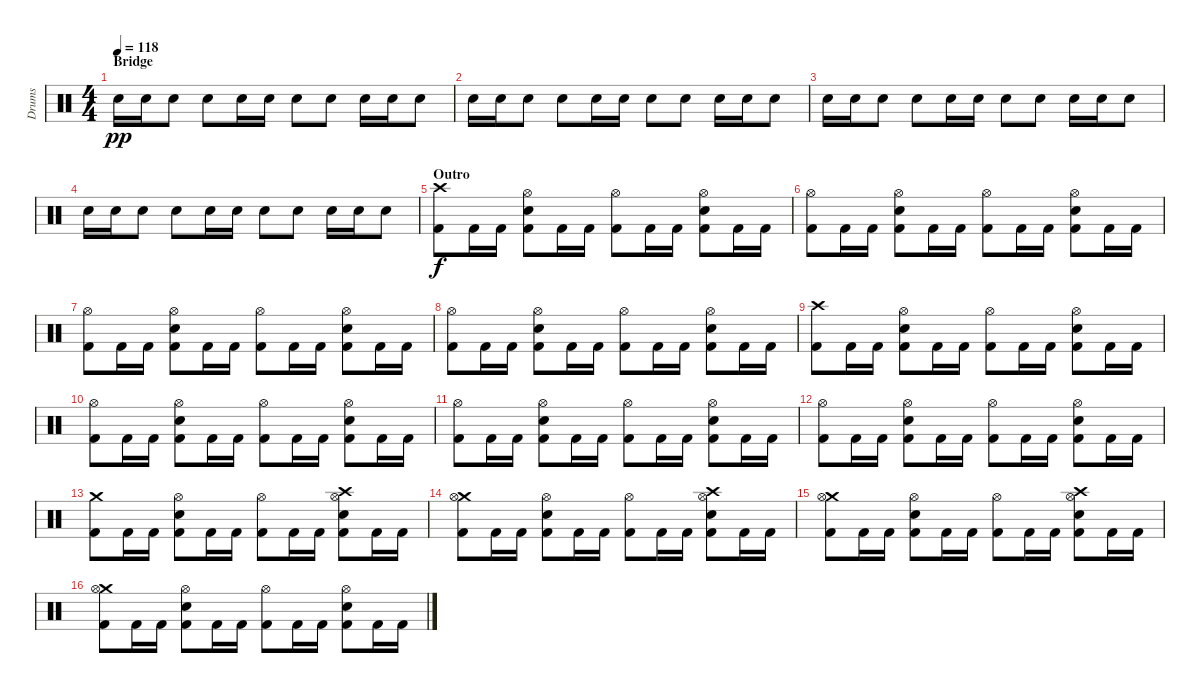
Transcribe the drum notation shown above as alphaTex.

\track ("Drums" "Drums") {instrument percussion}
\staff {score}
\articulation defaults
\ts (4 4)
\section ("" "Bridge")
\tempo 118
\clef neutral
\ks c "Snare (hit) 2".16{dy pp} "Snare (hit) 2".16 "Snare (hit) 2".8 "Snare (hit) 2".8 "Snare (hit) 2".16 "Snare (hit) 2".16 "Snare (hit) 2".8 "Snare (hit) 2".8 "Snare (hit) 2".16 "Snare (hit) 2".16 "Snare (hit) 2".8
|
"Snare (hit) 2".16 "Snare (hit) 2".16 "Snare (hit) 2".8 "Snare (hit) 2".8 "Snare (hit) 2".16 "Snare (hit) 2".16 "Snare (hit) 2".8 "Snare (hit) 2".8 "Snare (hit) 2".16 "Snare (hit) 2".16 "Snare (hit) 2".8 |
"Snare (hit) 2".16 "Snare (hit) 2".16 "Snare (hit) 2".8 "Snare (hit) 2".8 "Snare (hit) 2".16 "Snare (hit) 2".16 "Snare (hit) 2".8 "Snare (hit) 2".8 "Snare (hit) 2".16 "Snare (hit) 2".16 "Snare (hit) 2".8 |
"Snare (hit) 2".16 "Snare (hit) 2".16 "Snare (hit) 2".8 "Snare (hit) 2".8 "Snare (hit) 2".16 "Snare (hit) 2".16 "Snare (hit) 2".8 "Snare (hit) 2".8 "Snare (hit) 2".16 "Snare (hit) 2".16 "Snare (hit) 2".8 |
\section ("" "Outro")
("Crash high (hit)" "Kick (hit) 2").8{dy f} "Kick (hit) 2".16 "Kick (hit) 2".16 ("Hi-Hat (open)" "Snare (hit) 2" "Kick (hit) 2").8 "Kick (hit) 2".16 "Kick (hit) 2".16 ("Hi-Hat (open)" "Kick (hit) 2").8 "Kick (hit) 2".16 "Kick (hit) 2".16 ("Hi-Hat (open)" "Snare (hit) 2" "Kick (hit) 2").8 "Kick (hit) 2".16 "Kick (hit) 2".16 |
("Hi-Hat (open)" "Kick (hit) 2").8 "Kick (hit) 2".16 "Kick (hit) 2".16 ("Hi-Hat (open)" "Snare (hit) 2" "Kick (hit) 2").8 "Kick (hit) 2".16 "Kick (hit) 2".16 ("Hi-Hat (open)" "Kick (hit) 2").8 "Kick (hit) 2".16 "Kick (hit) 2".16 ("Hi-Hat (open)" "Snare (hit) 2" "Kick (hit) 2").8 "Kick (hit) 2".16 "Kick (hit) 2".16 |
("Hi-Hat (open)" "Kick (hit) 2").8 "Kick (hit) 2".16 "Kick (hit) 2".16 ("Hi-Hat (open)" "Snare (hit) 2" "Kick (hit) 2").8 "Kick (hit) 2".16 "Kick (hit) 2".16 ("Hi-Hat (open)" "Kick (hit) 2").8 "Kick (hit) 2".16 "Kick (hit) 2".16 ("Hi-Hat (open)" "Snare (hit) 2" "Kick (hit) 2").8 "Kick (hit) 2".16 "Kick (hit) 2".16 |
("Hi-Hat (open)" "Kick (hit) 2").8 "Kick (hit) 2".16 "Kick (hit) 2".16 ("Hi-Hat (open)" "Snare (hit) 2" "Kick (hit) 2").8 "Kick (hit) 2".16 "Kick (hit) 2".16 ("Hi-Hat (open)" "Kick (hit) 2").8 "Kick (hit) 2".16 "Kick (hit) 2".16 ("Hi-Hat (open)" "Snare (hit) 2" "Kick (hit) 2").8 "Kick (hit) 2".16 "Kick (hit) 2".16 |
("Crash high (hit)" "Kick (hit) 2").8 "Kick (hit) 2".16 "Kick (hit) 2".16 ("Hi-Hat (open)" "Snare (hit) 2" "Kick (hit) 2").8 "Kick (hit) 2".16 "Kick (hit) 2".16 ("Hi-Hat (open)" "Kick (hit) 2").8 "Kick (hit) 2".16 "Kick (hit) 2".16 ("Hi-Hat (open)" "Snare (hit) 2" "Kick (hit) 2").8 "Kick (hit) 2".16 "Kick (hit) 2".16 |
("Hi-Hat (open)" "Kick (hit) 2").8 "Kick (hit) 2".16 "Kick (hit) 2".16 ("Hi-Hat (open)" "Snare (hit) 2" "Kick (hit) 2").8 "Kick (hit) 2".16 "Kick (hit) 2".16 ("Hi-Hat (open)" "Kick (hit) 2").8 "Kick (hit) 2".16 "Kick (hit) 2".16 ("Hi-Hat (open)" "Snare (hit) 2" "Kick (hit) 2").8 "Kick (hit) 2".16 "Kick (hit) 2".16 |
("Hi-Hat (open)" "Kick (hit) 2").8 "Kick (hit) 2".16 "Kick (hit) 2".16 ("Hi-Hat (open)" "Snare (hit) 2" "Kick (hit) 2").8 "Kick (hit) 2".16 "Kick (hit) 2".16 ("Hi-Hat (open)" "Kick (hit) 2").8 "Kick (hit) 2".16 "Kick (hit) 2".16 ("Hi-Hat (open)" "Snare (hit) 2" "Kick (hit) 2").8 "Kick (hit) 2".16 "Kick (hit) 2".16 |
("Hi-Hat (open)" "Kick (hit) 2").8 "Kick (hit) 2".16 "Kick (hit) 2".16 ("Hi-Hat (open)" "Snare (hit) 2" "Kick (hit) 2").8 "Kick (hit) 2".16 "Kick (hit) 2".16 ("Hi-Hat (open)" "Kick (hit) 2").8 "Kick (hit) 2".16 "Kick (hit) 2".16 ("Hi-Hat (open)" "Snare (hit) 2" "Kick (hit) 2").8 "Kick (hit) 2".16 "Kick (hit) 2".16 |
("Crash medium (hit)" "Kick (hit) 2").8 "Kick (hit) 2".16 "Kick (hit) 2".16 ("Hi-Hat (open)" "Snare (hit) 2" "Kick (hit) 2").8 "Kick (hit) 2".16 "Kick (hit) 2".16 ("Hi-Hat (open)" "Kick (hit) 2").8 "Kick (hit) 2".16 "Kick (hit) 2".16 ("Crash high (hit)" "Hi-Hat (open)" "Snare (hit) 2" "Kick (hit) 2").8 "Kick (hit) 2".16 "Kick (hit) 2".16 |
("Crash medium (hit)" "Hi-Hat (open)" "Kick (hit) 2").8 "Kick (hit) 2".16 "Kick (hit) 2".16 ("Hi-Hat (open)" "Snare (hit) 2" "Kick (hit) 2").8 "Kick (hit) 2".16 "Kick (hit) 2".16 ("Hi-Hat (open)" "Kick (hit) 2").8 "Kick (hit) 2".16 "Kick (hit) 2".16 ("Crash high (hit)" "Hi-Hat (open)" "Snare (hit) 2" "Kick (hit) 2").8 "Kick (hit) 2".16 "Kick (hit) 2".16 |
("Crash medium (hit)" "Hi-Hat (open)" "Kick (hit) 2").8 "Kick (hit) 2".16 "Kick (hit) 2".16 ("Hi-Hat (open)" "Snare (hit) 2" "Kick (hit) 2").8 "Kick (hit) 2".16 "Kick (hit) 2".16 ("Hi-Hat (open)" "Kick (hit) 2").8 "Kick (hit) 2".16 "Kick (hit) 2".16 ("Crash high (hit)" "Hi-Hat (open)" "Snare (hit) 2" "Kick (hit) 2").8 "Kick (hit) 2".16 "Kick (hit) 2".16 |
("Crash medium (hit)" "Hi-Hat (open)" "Kick (hit) 2").8 "Kick (hit) 2".16 "Kick (hit) 2".16 ("Hi-Hat (open)" "Snare (hit) 2" "Kick (hit) 2").8 "Kick (hit) 2".16 "Kick (hit) 2".16 ("Hi-Hat (open)" "Kick (hit) 2").8 "Kick (hit) 2".16 "Kick (hit) 2".16 ("Hi-Hat (open)" "Snare (hit) 2" "Kick (hit) 2").8 "Kick (hit) 2".16 "Kick (hit) 2".16
